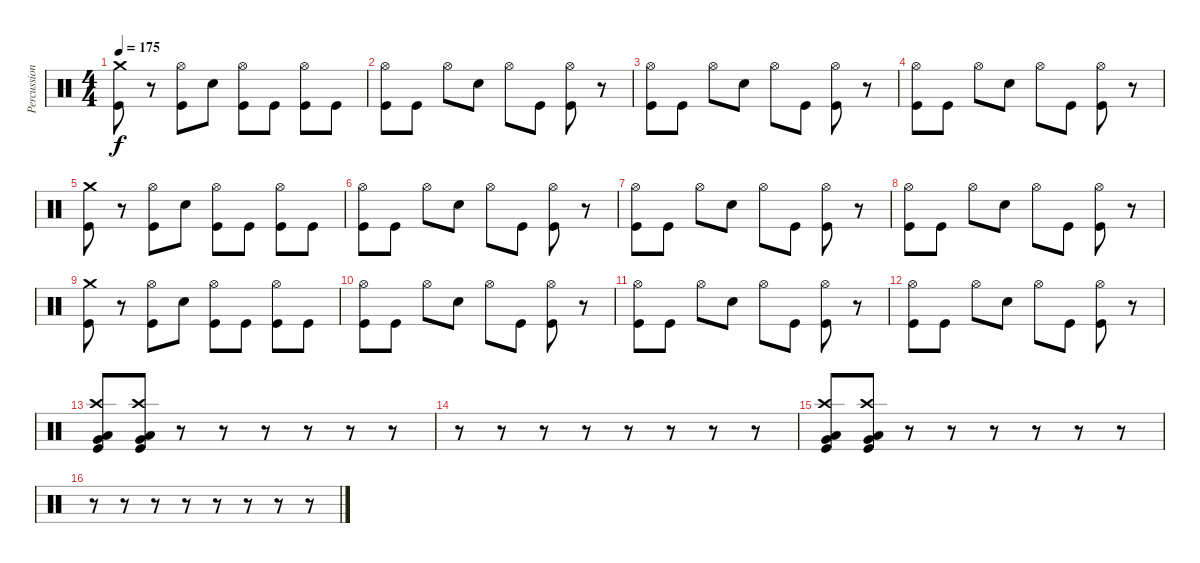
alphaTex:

\track ("Percussions" "Percussion") {instrument percussion}
\staff {score}
\articulation defaults
\ts (4 4)
\tempo 175
\clef neutral
\ks c
("Crash medium (hit)" "Kick (hit)").8{dy f} r.8 ("Hi-Hat (open)" "Kick (hit)").8 "Snare (hit) 2".8 ("Hi-Hat (open)" "Kick (hit)").8 "Kick (hit)".8 ("Hi-Hat (open)" "Kick (hit)").8 "Kick (hit)".8 |
("Hi-Hat (open)" "Kick (hit)").8 "Kick (hit)".8 "Hi-Hat (open)".8 "Snare (hit) 2".8 "Hi-Hat (open)".8 "Kick (hit)".8 ("Hi-Hat (open)" "Kick (hit)").8 r.8 |
("Hi-Hat (open)" "Kick (hit)").8 "Kick (hit)".8 "Hi-Hat (open)".8 "Snare (hit) 2".8 "Hi-Hat (open)".8 "Kick (hit)".8 ("Hi-Hat (open)" "Kick (hit)").8 r.8 |
("Hi-Hat (open)" "Kick (hit)").8 "Kick (hit)".8 "Hi-Hat (open)".8 "Snare (hit) 2".8 "Hi-Hat (open)".8 "Kick (hit)".8 ("Hi-Hat (open)" "Kick (hit)").8 r.8 |
("Crash medium (hit)" "Kick (hit)").8 r.8 ("Hi-Hat (open)" "Kick (hit)").8 "Snare (hit) 2".8 ("Hi-Hat (open)" "Kick (hit)").8 "Kick (hit)".8 ("Hi-Hat (open)" "Kick (hit)").8 "Kick (hit)".8 |
("Hi-Hat (open)" "Kick (hit)").8 "Kick (hit)".8 "Hi-Hat (open)".8 "Snare (hit) 2".8 "Hi-Hat (open)".8 "Kick (hit)".8 ("Hi-Hat (open)" "Kick (hit)").8 r.8 |
("Hi-Hat (open)" "Kick (hit)").8 "Kick (hit)".8 "Hi-Hat (open)".8 "Snare (hit) 2".8 "Hi-Hat (open)".8 "Kick (hit)".8 ("Hi-Hat (open)" "Kick (hit)").8 r.8 |
("Hi-Hat (open)" "Kick (hit)").8 "Kick (hit)".8 "Hi-Hat (open)".8 "Snare (hit) 2".8 "Hi-Hat (open)".8 "Kick (hit)".8 ("Hi-Hat (open)" "Kick (hit)").8 r.8 |
("Crash medium (hit)" "Kick (hit)").8 r.8 ("Hi-Hat (open)" "Kick (hit)").8 "Snare (hit) 2".8 ("Hi-Hat (open)" "Kick (hit)").8 "Kick (hit)".8 ("Hi-Hat (open)" "Kick (hit)").8 "Kick (hit)".8 |
("Hi-Hat (open)" "Kick (hit)").8 "Kick (hit)".8 "Hi-Hat (open)".8 "Snare (hit) 2".8 "Hi-Hat (open)".8 "Kick (hit)".8 ("Hi-Hat (open)" "Kick (hit)").8 r.8 |
("Hi-Hat (open)" "Kick (hit)").8 "Kick (hit)".8 "Hi-Hat (open)".8 "Snare (hit) 2".8 "Hi-Hat (open)".8 "Kick (hit)".8 ("Hi-Hat (open)" "Kick (hit)").8 r.8 |
("Hi-Hat (open)" "Kick (hit)").8 "Kick (hit)".8 "Hi-Hat (open)".8 "Snare (hit) 2".8 "Hi-Hat (open)".8 "Kick (hit)".8 ("Hi-Hat (open)" "Kick (hit)").8 r.8 |
("Crash high (hit)" "Very Low Tom (hit)" "Low Tom (hit)" "Kick (hit)").8 ("Crash high (hit)" "Very Low Tom (hit)" "Low Tom (hit)" "Kick (hit)").8 r.8 r.8 r.8 r.8 r.8 r.8 |
r.8 r.8 r.8 r.8 r.8 r.8 r.8 r.8 |
("Crash high (hit)" "Very Low Tom (hit)" "Low Tom (hit)" "Kick (hit)").8 ("Crash high (hit)" "Very Low Tom (hit)" "Low Tom (hit)" "Kick (hit)").8 r.8 r.8 r.8 r.8 r.8 r.8 |
r.8 r.8 r.8 r.8 r.8 r.8 r.8 r.8
